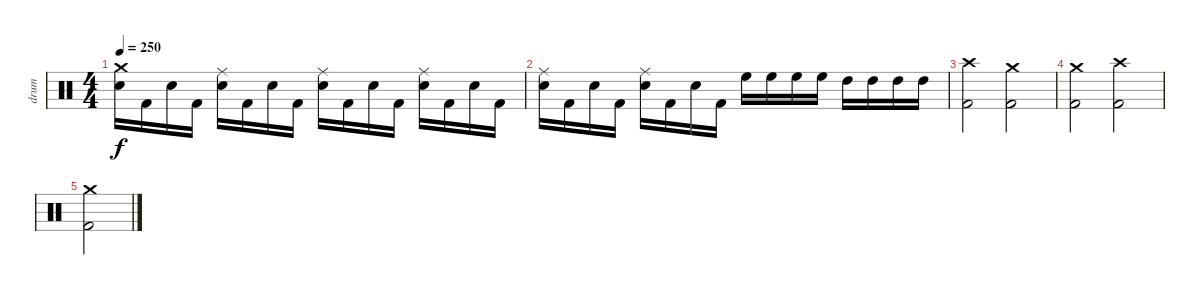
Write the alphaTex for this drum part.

\track ("drum" "drum") {instrument percussion}
\staff {score}
\articulation defaults
\ts (4 4)
\tempo 250
\clef neutral
\ks c
("Crash medium (hit)" "Snare (hit) 2").16{dy f} "Kick (hit) 2".16 "Snare (hit) 2".16 "Kick (hit) 2".16 ("Ride (middle)" "Snare (hit) 2").16 "Kick (hit) 2".16 "Snare (hit) 2".16 "Kick (hit) 2".16 ("Ride (middle)" "Snare (hit) 2").16 "Kick (hit) 2".16 "Snare (hit) 2".16 "Kick (hit) 2".16 ("Ride (middle)" "Snare (hit) 2").16 "Kick (hit) 2".16 "Snare (hit) 2".16 "Kick (hit) 2".16 |
("Ride (middle)" "Snare (hit) 2").16 "Kick (hit) 2".16 "Snare (hit) 2".16 "Kick (hit) 2".16 ("Ride (middle)" "Snare (hit) 2").16 "Kick (hit) 2".16 "Snare (hit) 2".16 "Kick (hit) 2".16 "High Floor Tom (hit)".16 "High Floor Tom (hit)".16 "High Floor Tom (hit)".16 "High Floor Tom (hit)".16 "High Tom (hit)".16 "High Tom (hit)".16 "High Tom (hit)".16 "High Tom (hit)".16 |
("Crash high (hit)" "Kick (hit) 2").2 ("Crash medium (hit)" "Kick (hit) 2").2 |
("Crash medium (hit)" "Kick (hit) 2").2 ("Crash high (hit)" "Kick (hit) 2").2 |
("Crash medium (hit)" "Kick (hit) 2").2
